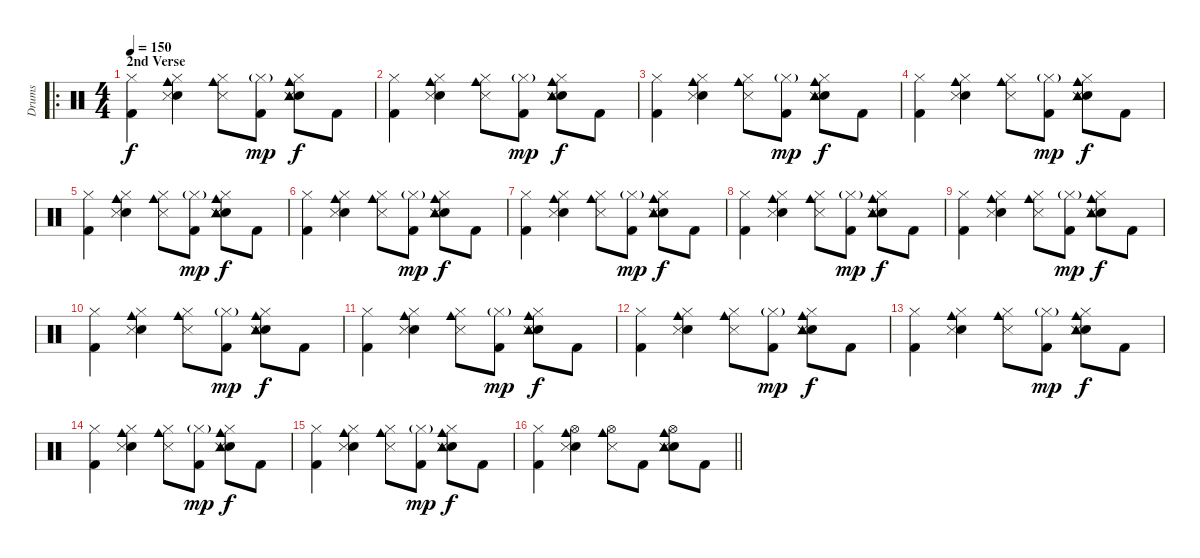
\track ("Drums" "Drums") {instrument percussion}
\staff {score}
\articulation defaults
\ro
\ts (4 4)
\section ("" "2nd Verse")
\tempo 150
\clef neutral
\ks c
("Kick (hit) 2" "Hi-Hat (closed)").4{dy f} ("Electric Snare (hit)" "Hi-Hat (closed)" "Cowbell medium (hit)" "Snare (side stick) 3").4 ("Hi-Hat (closed)" "Cowbell medium (hit)" "Snare (side stick) 3").8 ("Kick (hit) 2" "Hi-Hat (closed)"{g}).8{dy mp} ("Electric Snare (hit)" "Hi-Hat (closed)" "Cowbell medium (hit)" "Snare (side stick) 3" "Tambourine (hit)").8{dy f} "Kick (hit) 2".8 |
("Kick (hit) 2" "Hi-Hat (closed)").4 ("Electric Snare (hit)" "Hi-Hat (closed)" "Cowbell medium (hit)" "Snare (side stick) 3").4 ("Hi-Hat (closed)" "Cowbell medium (hit)" "Snare (side stick) 3").8 ("Kick (hit) 2" "Hi-Hat (closed)"{g}).8{dy mp} ("Electric Snare (hit)" "Hi-Hat (closed)" "Cowbell medium (hit)" "Snare (side stick) 3" "Tambourine (hit)").8{dy f} "Kick (hit) 2".8 |
("Kick (hit) 2" "Hi-Hat (closed)").4 ("Electric Snare (hit)" "Hi-Hat (closed)" "Cowbell medium (hit)" "Snare (side stick) 3").4 ("Hi-Hat (closed)" "Cowbell medium (hit)" "Snare (side stick) 3").8 ("Kick (hit) 2" "Hi-Hat (closed)"{g}).8{dy mp} ("Electric Snare (hit)" "Hi-Hat (closed)" "Cowbell medium (hit)" "Snare (side stick) 3" "Tambourine (hit)").8{dy f} "Kick (hit) 2".8 |
("Kick (hit) 2" "Hi-Hat (closed)").4 ("Electric Snare (hit)" "Hi-Hat (closed)" "Cowbell medium (hit)" "Snare (side stick) 3").4 ("Hi-Hat (closed)" "Cowbell medium (hit)" "Snare (side stick) 3").8 ("Kick (hit) 2" "Hi-Hat (closed)"{g}).8{dy mp} ("Electric Snare (hit)" "Hi-Hat (closed)" "Cowbell medium (hit)" "Snare (side stick) 3" "Tambourine (hit)").8{dy f} "Kick (hit) 2".8 |
("Kick (hit) 2" "Hi-Hat (closed)").4 ("Electric Snare (hit)" "Hi-Hat (closed)" "Cowbell medium (hit)" "Snare (side stick) 3").4 ("Hi-Hat (closed)" "Cowbell medium (hit)" "Snare (side stick) 3").8 ("Kick (hit) 2" "Hi-Hat (closed)"{g}).8{dy mp} ("Electric Snare (hit)" "Hi-Hat (closed)" "Cowbell medium (hit)" "Snare (side stick) 3" "Tambourine (hit)").8{dy f} "Kick (hit) 2".8 |
("Kick (hit) 2" "Hi-Hat (closed)").4 ("Electric Snare (hit)" "Hi-Hat (closed)" "Cowbell medium (hit)" "Snare (side stick) 3").4 ("Hi-Hat (closed)" "Cowbell medium (hit)" "Snare (side stick) 3").8 ("Kick (hit) 2" "Hi-Hat (closed)"{g}).8{dy mp} ("Electric Snare (hit)" "Hi-Hat (closed)" "Cowbell medium (hit)" "Snare (side stick) 3" "Tambourine (hit)").8{dy f} "Kick (hit) 2".8 |
("Kick (hit) 2" "Hi-Hat (closed)").4 ("Electric Snare (hit)" "Hi-Hat (closed)" "Cowbell medium (hit)" "Snare (side stick) 3").4 ("Hi-Hat (closed)" "Cowbell medium (hit)" "Snare (side stick) 3").8 ("Kick (hit) 2" "Hi-Hat (closed)"{g}).8{dy mp} ("Electric Snare (hit)" "Hi-Hat (closed)" "Cowbell medium (hit)" "Snare (side stick) 3" "Tambourine (hit)").8{dy f} "Kick (hit) 2".8 |
("Kick (hit) 2" "Hi-Hat (closed)").4 ("Electric Snare (hit)" "Hi-Hat (closed)" "Cowbell medium (hit)" "Snare (side stick) 3").4 ("Hi-Hat (closed)" "Cowbell medium (hit)" "Snare (side stick) 3").8 ("Kick (hit) 2" "Hi-Hat (closed)"{g}).8{dy mp} ("Electric Snare (hit)" "Hi-Hat (closed)" "Cowbell medium (hit)" "Snare (side stick) 3" "Tambourine (hit)").8{dy f} "Kick (hit) 2".8 |
("Kick (hit) 2" "Hi-Hat (closed)").4 ("Electric Snare (hit)" "Hi-Hat (closed)" "Cowbell medium (hit)" "Snare (side stick) 3").4 ("Hi-Hat (closed)" "Cowbell medium (hit)" "Snare (side stick) 3").8 ("Kick (hit) 2" "Hi-Hat (closed)"{g}).8{dy mp} ("Electric Snare (hit)" "Hi-Hat (closed)" "Cowbell medium (hit)" "Snare (side stick) 3" "Tambourine (hit)").8{dy f} "Kick (hit) 2".8 |
("Kick (hit) 2" "Hi-Hat (closed)").4 ("Electric Snare (hit)" "Hi-Hat (closed)" "Cowbell medium (hit)" "Snare (side stick) 3").4 ("Hi-Hat (closed)" "Cowbell medium (hit)" "Snare (side stick) 3").8 ("Kick (hit) 2" "Hi-Hat (closed)"{g}).8{dy mp} ("Electric Snare (hit)" "Hi-Hat (closed)" "Cowbell medium (hit)" "Snare (side stick) 3" "Tambourine (hit)").8{dy f} "Kick (hit) 2".8 |
("Kick (hit) 2" "Hi-Hat (closed)").4 ("Electric Snare (hit)" "Hi-Hat (closed)" "Cowbell medium (hit)" "Snare (side stick) 3").4 ("Hi-Hat (closed)" "Cowbell medium (hit)" "Snare (side stick) 3").8 ("Kick (hit) 2" "Hi-Hat (closed)"{g}).8{dy mp} ("Electric Snare (hit)" "Hi-Hat (closed)" "Cowbell medium (hit)" "Snare (side stick) 3" "Tambourine (hit)").8{dy f} "Kick (hit) 2".8 |
("Kick (hit) 2" "Hi-Hat (closed)").4 ("Electric Snare (hit)" "Hi-Hat (closed)" "Cowbell medium (hit)" "Snare (side stick) 3").4 ("Hi-Hat (closed)" "Cowbell medium (hit)" "Snare (side stick) 3").8 ("Kick (hit) 2" "Hi-Hat (closed)"{g}).8{dy mp} ("Electric Snare (hit)" "Hi-Hat (closed)" "Cowbell medium (hit)" "Snare (side stick) 3" "Tambourine (hit)").8{dy f} "Kick (hit) 2".8 |
("Kick (hit) 2" "Hi-Hat (closed)").4 ("Electric Snare (hit)" "Hi-Hat (closed)" "Cowbell medium (hit)" "Snare (side stick) 3").4 ("Hi-Hat (closed)" "Cowbell medium (hit)" "Snare (side stick) 3").8 ("Kick (hit) 2" "Hi-Hat (closed)"{g}).8{dy mp} ("Electric Snare (hit)" "Hi-Hat (closed)" "Cowbell medium (hit)" "Snare (side stick) 3" "Tambourine (hit)").8{dy f} "Kick (hit) 2".8 |
("Kick (hit) 2" "Hi-Hat (closed)").4 ("Electric Snare (hit)" "Hi-Hat (closed)" "Cowbell medium (hit)" "Snare (side stick) 3").4 ("Hi-Hat (closed)" "Cowbell medium (hit)" "Snare (side stick) 3").8 ("Kick (hit) 2" "Hi-Hat (closed)"{g}).8{dy mp} ("Electric Snare (hit)" "Hi-Hat (closed)" "Cowbell medium (hit)" "Snare (side stick) 3" "Tambourine (hit)").8{dy f} "Kick (hit) 2".8 |
("Kick (hit) 2" "Hi-Hat (closed)").4 ("Electric Snare (hit)" "Hi-Hat (closed)" "Cowbell medium (hit)" "Snare (side stick) 3").4 ("Hi-Hat (closed)" "Cowbell medium (hit)" "Snare (side stick) 3").8 ("Kick (hit) 2" "Hi-Hat (closed)"{g}).8{dy mp} ("Electric Snare (hit)" "Hi-Hat (closed)" "Cowbell medium (hit)" "Snare (side stick) 3" "Tambourine (hit)").8{dy f} "Kick (hit) 2".8 |
\barLineRight lightlight
("Kick (hit) 2" "Hi-Hat (closed)").4 ("Electric Snare (hit)" "Hi-Hat (open)" "Cowbell medium (hit)" "Snare (side stick) 3").4 ("Hi-Hat (open)" "Cowbell medium (hit)" "Snare (side stick) 3").8 "Kick (hit) 2".8 ("Electric Snare (hit)" "Hi-Hat (open)" "Cowbell medium (hit)" "Snare (side stick) 3" "Tambourine (hit)").8 "Kick (hit) 2".8
